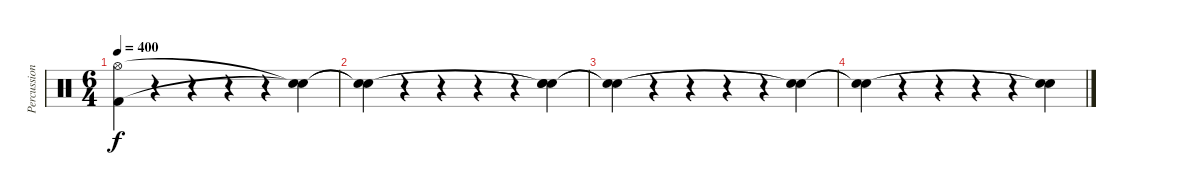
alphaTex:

\track ("Percussion" "Percussion") {instrument percussion}
\staff {score}
\articulation defaults
\ts (6 4)
\tempo 400
\clef neutral
\ks c
("Hi-Hat (open)" "Kick (hit) 2").4{dy f} r.4 r.4 r.4 r.4 ("Snare (hit)"{t} "Snare (hit)"{t}).4 |
("Snare (hit)"{t} "Snare (hit)"{t}).4 r.4 r.4 r.4 r.4 ("Snare (hit)"{t} "Snare (hit)"{t} "Snare (hit)"{t}).4 |
("Snare (hit)"{t} "Snare (hit)"{t}).4 r.4 r.4 r.4 r.4 ("Snare (hit)"{t} "Snare (hit)"{t}).4 |
("Snare (hit)"{t} "Snare (hit)"{t}).4 r.4 r.4 r.4 r.4 ("Snare (hit)"{t} "Snare (hit)"{t}).4
